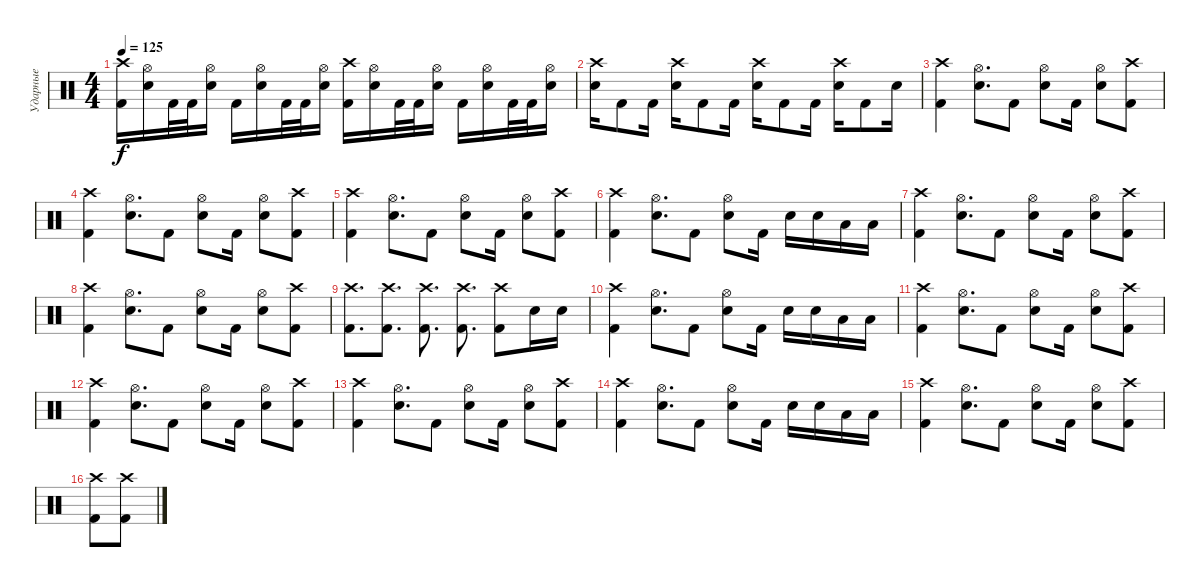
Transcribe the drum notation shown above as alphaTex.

\track ("Ударные" "Ударные") {instrument percussion}
\staff {score}
\articulation defaults
\ts (4 4)
\tempo 125
\clef neutral
\ks c
("Kick (hit) 2" "Crash high (hit)").16{dy f} ("Electric Snare (hit)" "Hi-Hat (open)").16 "Kick (hit) 2".32 "Kick (hit) 2".32 ("Electric Snare (hit)" "Hi-Hat (open)").16 "Kick (hit) 2".16 ("Electric Snare (hit)" "Hi-Hat (open)").16 "Kick (hit) 2".32 "Kick (hit) 2".32 ("Electric Snare (hit)" "Hi-Hat (open)").16 ("Kick (hit) 2" "Crash high (hit)").16 ("Electric Snare (hit)" "Hi-Hat (open)").16 "Kick (hit) 2".32 "Kick (hit) 2".32 ("Electric Snare (hit)" "Hi-Hat (open)").16 "Kick (hit) 2".16 ("Electric Snare (hit)" "Hi-Hat (open)").16 "Kick (hit) 2".32 "Kick (hit) 2".32 ("Electric Snare (hit)" "Hi-Hat (open)").16 |
("Electric Snare (hit)" "Crash high (hit)").16 "Kick (hit) 2".8 "Kick (hit) 2".16 ("Electric Snare (hit)" "Crash high (hit)").16 "Kick (hit) 2".8 "Kick (hit) 2".16 ("Electric Snare (hit)" "Crash high (hit)").16 "Kick (hit) 2".8 "Kick (hit) 2".16 ("Electric Snare (hit)" "Crash high (hit)").16 "Kick (hit) 2".8 "Electric Snare (hit)".16 |
("Kick (hit) 2" "Crash high (hit)").4 ("Electric Snare (hit)" "Hi-Hat (open)").8{d} "Kick (hit) 2".8 ("Electric Snare (hit)" "Hi-Hat (open)").8 "Kick (hit) 2".16 ("Electric Snare (hit)" "Hi-Hat (open)").8 ("Kick (hit) 2" "Crash high (hit)").8 |
("Kick (hit) 2" "Crash high (hit)").4 ("Electric Snare (hit)" "Hi-Hat (open)").8{d} "Kick (hit) 2".8 ("Electric Snare (hit)" "Hi-Hat (open)").8 "Kick (hit) 2".16 ("Electric Snare (hit)" "Hi-Hat (open)").8 ("Kick (hit) 2" "Crash high (hit)").8 |
("Kick (hit) 2" "Crash high (hit)").4 ("Electric Snare (hit)" "Hi-Hat (open)").8{d} "Kick (hit) 2".8 ("Electric Snare (hit)" "Hi-Hat (open)").8 "Kick (hit) 2".16 ("Electric Snare (hit)" "Hi-Hat (open)").8 ("Kick (hit) 2" "Crash high (hit)").8 |
("Kick (hit) 2" "Crash high (hit)").4 ("Electric Snare (hit)" "Hi-Hat (open)").8{d} "Kick (hit) 2".8 ("Electric Snare (hit)" "Hi-Hat (open)").8 "Kick (hit) 2".16 "Electric Snare (hit)".16 "Electric Snare (hit)".16 "Low Tom (hit)".16 "Low Tom (hit)".16 |
("Kick (hit) 2" "Crash high (hit)").4 ("Electric Snare (hit)" "Hi-Hat (open)").8{d} "Kick (hit) 2".8 ("Electric Snare (hit)" "Hi-Hat (open)").8 "Kick (hit) 2".16 ("Electric Snare (hit)" "Hi-Hat (open)").8 ("Kick (hit) 2" "Crash high (hit)").8 |
("Kick (hit) 2" "Crash high (hit)").4 ("Electric Snare (hit)" "Hi-Hat (open)").8{d} "Kick (hit) 2".8 ("Electric Snare (hit)" "Hi-Hat (open)").8 "Kick (hit) 2".16 ("Electric Snare (hit)" "Hi-Hat (open)").8 ("Kick (hit) 2" "Crash high (hit)").8 |
("Crash high (hit)" "Kick (hit) 2").8{d} ("Kick (hit) 2" "Crash high (hit)").8{d} ("Kick (hit) 2" "Crash high (hit)").8{d} ("Kick (hit) 2" "Crash high (hit)").8{d} ("Kick (hit) 2" "Crash high (hit)").8 "Electric Snare (hit)".16 "Electric Snare (hit)".16 |
("Kick (hit) 2" "Crash high (hit)").4 ("Electric Snare (hit)" "Hi-Hat (open)").8{d} "Kick (hit) 2".8 ("Electric Snare (hit)" "Hi-Hat (open)").8 "Kick (hit) 2".16 "Electric Snare (hit)".16 "Electric Snare (hit)".16 "Low Tom (hit)".16 "Low Tom (hit)".16 |
("Kick (hit) 2" "Crash high (hit)").4 ("Electric Snare (hit)" "Hi-Hat (open)").8{d} "Kick (hit) 2".8 ("Electric Snare (hit)" "Hi-Hat (open)").8 "Kick (hit) 2".16 ("Electric Snare (hit)" "Hi-Hat (open)").8 ("Kick (hit) 2" "Crash high (hit)").8 |
("Kick (hit) 2" "Crash high (hit)").4 ("Electric Snare (hit)" "Hi-Hat (open)").8{d} "Kick (hit) 2".8 ("Electric Snare (hit)" "Hi-Hat (open)").8 "Kick (hit) 2".16 ("Electric Snare (hit)" "Hi-Hat (open)").8 ("Kick (hit) 2" "Crash high (hit)").8 |
("Kick (hit) 2" "Crash high (hit)").4 ("Electric Snare (hit)" "Hi-Hat (open)").8{d} "Kick (hit) 2".8 ("Electric Snare (hit)" "Hi-Hat (open)").8 "Kick (hit) 2".16 ("Electric Snare (hit)" "Hi-Hat (open)").8 ("Kick (hit) 2" "Crash high (hit)").8 |
("Kick (hit) 2" "Crash high (hit)").4 ("Electric Snare (hit)" "Hi-Hat (open)").8{d} "Kick (hit) 2".8 ("Electric Snare (hit)" "Hi-Hat (open)").8 "Kick (hit) 2".16 "Electric Snare (hit)".16 "Electric Snare (hit)".16 "Low Tom (hit)".16 "Low Tom (hit)".16 |
("Kick (hit) 2" "Crash high (hit)").4 ("Electric Snare (hit)" "Hi-Hat (open)").8{d} "Kick (hit) 2".8 ("Electric Snare (hit)" "Hi-Hat (open)").8 "Kick (hit) 2".16 ("Electric Snare (hit)" "Hi-Hat (open)").8 ("Kick (hit) 2" "Crash high (hit)").8 |
("Kick (hit) 2" "Crash high (hit)").8 ("Kick (hit) 2" "Crash high (hit)").8
